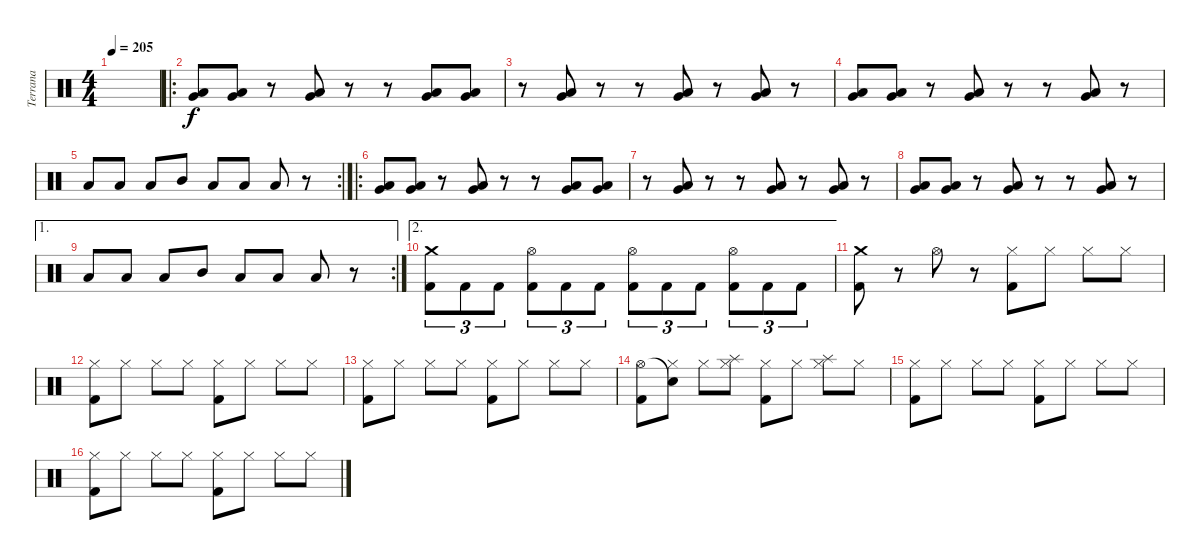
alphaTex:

\track ("Terrana" "Terrana") {instrument percussion}
\staff {score}
\articulation defaults
\ts (4 4)
\tempo 205
\clef neutral
\ks c
|
\ro
("Low Floor Tom (hit)" "Very Low Tom (hit)").8 ("Low Floor Tom (hit)" "Very Low Tom (hit)").8 r.8 ("Low Floor Tom (hit)" "Very Low Tom (hit)").8 r.8 r.8 ("Low Floor Tom (hit)" "Very Low Tom (hit)").8 ("Low Floor Tom (hit)" "Very Low Tom (hit)").8 |
r.8 ("Low Floor Tom (hit)" "Very Low Tom (hit)").8 r.8 r.8 ("Low Floor Tom (hit)" "Very Low Tom (hit)").8 r.8 ("Low Floor Tom (hit)" "Very Low Tom (hit)").8 r.8 |
("Low Floor Tom (hit)" "Very Low Tom (hit)").8 ("Low Floor Tom (hit)" "Very Low Tom (hit)").8 r.8 ("Low Floor Tom (hit)" "Very Low Tom (hit)").8 r.8 r.8 ("Low Floor Tom (hit)" "Very Low Tom (hit)").8 r.8 |
\rc 2 "Low Tom (hit)".8 "Low Tom (hit)".8 "Low Tom (hit)".8 "Mid Tom (hit)".8 "Low Tom (hit)".8 "Low Tom (hit)".8 "Low Tom (hit)".8
r.8 |
\ro
("Low Floor Tom (hit)" "Very Low Tom (hit)").8 ("Low Floor Tom (hit)" "Very Low Tom (hit)").8 r.8 ("Low Floor Tom (hit)" "Very Low Tom (hit)").8 r.8 r.8 ("Low Floor Tom (hit)" "Very Low Tom (hit)").8 ("Low Floor Tom (hit)" "Very Low Tom (hit)").8 |
r.8 ("Low Floor Tom (hit)" "Very Low Tom (hit)").8 r.8 r.8 ("Low Floor Tom (hit)" "Very Low Tom (hit)").8 r.8 ("Low Floor Tom (hit)" "Very Low Tom (hit)").8 r.8 |
("Low Floor Tom (hit)" "Very Low Tom (hit)").8 ("Low Floor Tom (hit)" "Very Low Tom (hit)").8 r.8 ("Low Floor Tom (hit)" "Very Low Tom (hit)").8 r.8 r.8 ("Low Floor Tom (hit)" "Very Low Tom (hit)").8 r.8 |
\ae 1
\rc 2 "Low Tom (hit)".8 "Low Tom (hit)".8 "Low Tom (hit)".8 "Mid Tom (hit)".8 "Low Tom (hit)".8 "Low Tom (hit)".8 "Low Tom (hit)".8
r.8 |
\ae 2
("Crash medium (hit)" "Kick (hit) 2").8{tu (3 2) dy f} "Kick (hit) 2".8{tu (3 2)} "Kick (hit) 2".8{tu (3 2)} ("Hi-Hat (open)" "Kick (hit) 2").8{tu (3 2)} "Kick (hit) 2".8{tu (3 2)} "Kick (hit) 2".8{tu (3 2)} ("Hi-Hat (open)" "Kick (hit) 2").8{tu (3 2)} "Kick (hit) 2".8{tu (3 2)} "Kick (hit) 2".8{tu (3 2)} ("Hi-Hat (open)" "Kick (hit) 2").8{tu (3 2)} "Kick (hit) 2".8{tu (3 2)} "Kick (hit) 2".8{tu (3 2)} |
("Crash medium (hit)" "Kick (hit) 2").8 r.8 "Hi-Hat (open)".8 r.8 ("Hi-Hat (closed)" "Kick (hit) 2").8 "Hi-Hat (closed)".8 "Hi-Hat (closed)".8 "Hi-Hat (closed)".8 |
("Hi-Hat (closed)" "Kick (hit) 2").8 "Hi-Hat (closed)".8 "Hi-Hat (closed)".8 "Hi-Hat (closed)".8 ("Hi-Hat (closed)" "Kick (hit) 2").8 "Hi-Hat (closed)".8 "Hi-Hat (closed)".8 "Hi-Hat (closed)".8 |
("Hi-Hat (closed)" "Kick (hit) 2").8 "Hi-Hat (closed)".8 "Hi-Hat (closed)".8 "Hi-Hat (closed)".8 ("Hi-Hat (closed)" "Kick (hit) 2").8 "Hi-Hat (closed)".8 "Hi-Hat (closed)".8 "Hi-Hat (closed)".8 |
("Hi-Hat (open)" "Kick (hit) 2").8 ("Snare (hit)"{t} "Hi-Hat (closed)").8 "Hi-Hat (closed)".8 ("Splash (hit)" "Hi-Hat (closed)").8 ("Hi-Hat (closed)" "Kick (hit) 2").8 "Hi-Hat (closed)".8 ("Splash (hit)" "Hi-Hat (closed)").8 "Hi-Hat (closed)".8 |
("Hi-Hat (closed)" "Kick (hit) 2").8 "Hi-Hat (closed)".8 "Hi-Hat (closed)".8 "Hi-Hat (closed)".8 ("Hi-Hat (closed)" "Kick (hit) 2").8 "Hi-Hat (closed)".8 "Hi-Hat (closed)".8 "Hi-Hat (closed)".8 |
("Hi-Hat (closed)" "Kick (hit) 2").8 "Hi-Hat (closed)".8 "Hi-Hat (closed)".8 "Hi-Hat (closed)".8 ("Hi-Hat (closed)" "Kick (hit) 2").8 "Hi-Hat (closed)".8 "Hi-Hat (closed)".8 "Hi-Hat (closed)".8
